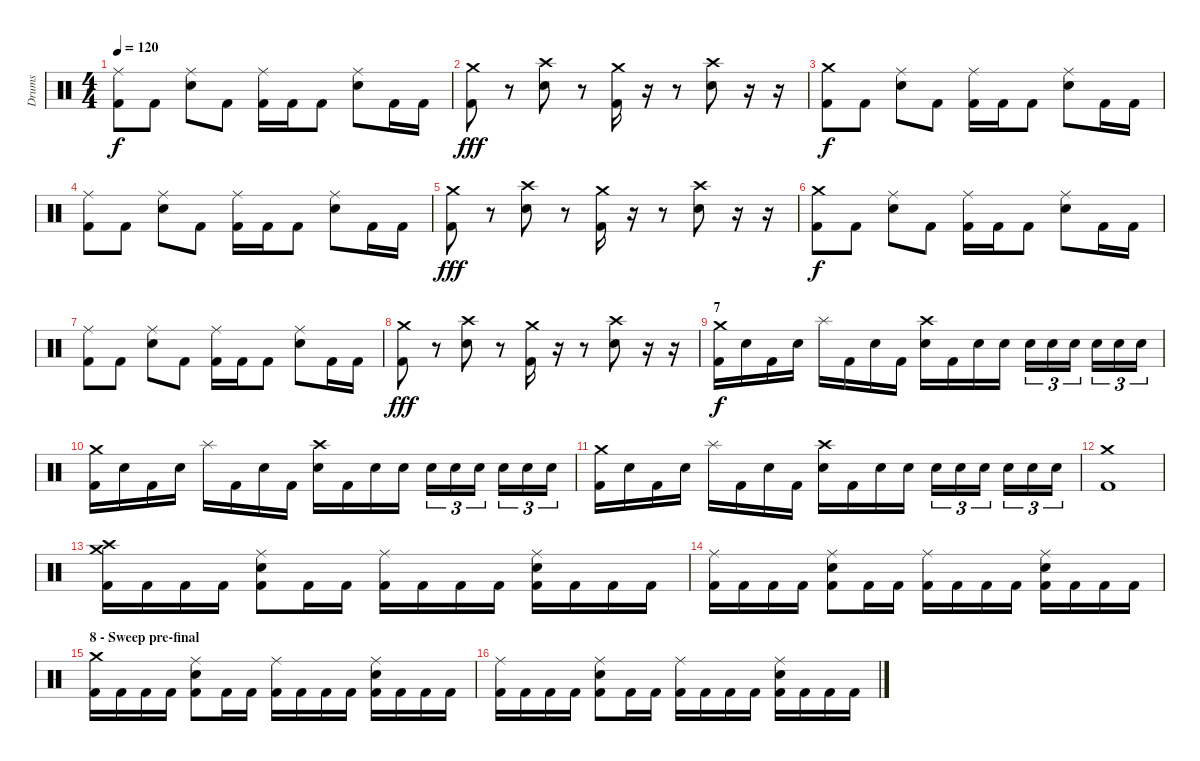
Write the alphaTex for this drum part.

\track ("Drums" "Drums") {instrument percussion}
\staff {score}
\articulation defaults
\ts (4 4)
\tempo 120
\clef neutral
\ks c
("Ride (middle)" "Kick (hit) 2").8{dy f} "Kick (hit) 2".8 ("Ride (middle)" "Electric Snare (hit)").8 "Kick (hit) 2".8 ("Ride (middle)" "Kick (hit) 2").16 "Kick (hit) 2".16 "Kick (hit) 2".8 ("Ride (middle)" "Electric Snare (hit)").8 "Kick (hit) 2".16 "Kick (hit) 2".16 |
("Crash medium (hit)" "Kick (hit) 2").8{dy fff} r.8 ("Crash high (hit)" "Electric Snare (hit)").8 r.8 ("Crash medium (hit)" "Kick (hit) 2").16 r.16 r.8 ("Crash high (hit)" "Electric Snare (hit)").8 r.16 r.16 |
("Crash medium (hit)" "Kick (hit) 2").8{dy f} "Kick (hit) 2".8 ("Ride (middle)" "Electric Snare (hit)").8 "Kick (hit) 2".8 ("Ride (middle)" "Kick (hit) 2").16 "Kick (hit) 2".16 "Kick (hit) 2".8 ("Ride (middle)" "Electric Snare (hit)").8 "Kick (hit) 2".16 "Kick (hit) 2".16 |
("Ride (middle)" "Kick (hit) 2").8 "Kick (hit) 2".8 ("Ride (middle)" "Electric Snare (hit)").8 "Kick (hit) 2".8 ("Ride (middle)" "Kick (hit) 2").16 "Kick (hit) 2".16 "Kick (hit) 2".8 ("Ride (middle)" "Electric Snare (hit)").8 "Kick (hit) 2".16 "Kick (hit) 2".16 |
("Crash medium (hit)" "Kick (hit) 2").8{dy fff} r.8 ("Crash high (hit)" "Electric Snare (hit)").8 r.8 ("Crash medium (hit)" "Kick (hit) 2").16 r.16 r.8 ("Crash high (hit)" "Electric Snare (hit)").8 r.16 r.16 |
("Crash medium (hit)" "Kick (hit) 2").8{dy f} "Kick (hit) 2".8 ("Ride (middle)" "Electric Snare (hit)").8 "Kick (hit) 2".8 ("Ride (middle)" "Kick (hit) 2").16 "Kick (hit) 2".16 "Kick (hit) 2".8 ("Ride (middle)" "Electric Snare (hit)").8 "Kick (hit) 2".16 "Kick (hit) 2".16 |
("Ride (middle)" "Kick (hit) 2").8 "Kick (hit) 2".8 ("Ride (middle)" "Electric Snare (hit)").8 "Kick (hit) 2".8 ("Ride (middle)" "Kick (hit) 2").16 "Kick (hit) 2".16 "Kick (hit) 2".8 ("Ride (middle)" "Electric Snare (hit)").8 "Kick (hit) 2".16 "Kick (hit) 2".16 |
("Crash medium (hit)" "Kick (hit) 2").8{dy fff} r.8 ("Crash high (hit)" "Electric Snare (hit)").8 r.8 ("Crash medium (hit)" "Kick (hit) 2").16 r.16 r.8 ("Crash high (hit)" "Electric Snare (hit)").8 r.16 r.16 |
\section ("" "7")
("Crash medium (hit)" "Kick (hit) 2").16{dy f} "Electric Snare (hit)".16 "Kick (hit) 2".16 "Electric Snare (hit)".16 "Splash (hit)".16 "Kick (hit) 2".16 "Electric Snare (hit)".16 "Kick (hit) 2".16 ("Crash high (hit)" "Electric Snare (hit)").16 "Kick (hit) 2".16 "Electric Snare (hit)".16 "Electric Snare (hit)".16 "Electric Snare (hit)".16{tu (3 2)} "Electric Snare (hit)".16{tu (3 2)} "Electric Snare (hit)".16{tu (3 2)} "Electric Snare (hit)".16{tu (3 2)} "Electric Snare (hit)".16{tu (3 2)} "Electric Snare (hit)".16{tu (3 2)} |
("Crash medium (hit)" "Kick (hit) 2").16 "Electric Snare (hit)".16 "Kick (hit) 2".16 "Electric Snare (hit)".16 "Splash (hit)".16 "Kick (hit) 2".16 "Electric Snare (hit)".16 "Kick (hit) 2".16 ("Crash high (hit)" "Electric Snare (hit)").16 "Kick (hit) 2".16 "Electric Snare (hit)".16 "Electric Snare (hit)".16 "Electric Snare (hit)".16{tu (3 2)} "Electric Snare (hit)".16{tu (3 2)} "Electric Snare (hit)".16{tu (3 2)} "Electric Snare (hit)".16{tu (3 2)} "Electric Snare (hit)".16{tu (3 2)} "Electric Snare (hit)".16{tu (3 2)} |
("Crash medium (hit)" "Kick (hit) 2").16 "Electric Snare (hit)".16 "Kick (hit) 2".16 "Electric Snare (hit)".16 "Splash (hit)".16 "Kick (hit) 2".16 "Electric Snare (hit)".16 "Kick (hit) 2".16 ("Crash high (hit)" "Electric Snare (hit)").16 "Kick (hit) 2".16 "Electric Snare (hit)".16 "Electric Snare (hit)".16 "Electric Snare (hit)".16{tu (3 2)} "Electric Snare (hit)".16{tu (3 2)} "Electric Snare (hit)".16{tu (3 2)} "Electric Snare (hit)".16{tu (3 2)} "Electric Snare (hit)".16{tu (3 2)} "Electric Snare (hit)".16{tu (3 2)} |
("Crash medium (hit)" "Kick (hit) 2").1 |
("Crash medium (hit)" "Crash high (hit)" "Kick (hit) 2").16{volume 12} "Kick (hit) 2".16 "Kick (hit) 2".16 "Kick (hit) 2".16 ("Ride (middle)" "Electric Snare (hit)" "Kick (hit) 2").8 "Kick (hit) 2".16 "Kick (hit) 2".16 ("Ride (middle)" "Kick (hit) 2").16 "Kick (hit) 2".16 "Kick (hit) 2".16 "Kick (hit) 2".16 ("Ride (middle)" "Electric Snare (hit)" "Kick (hit) 2").16 "Kick (hit) 2".16 "Kick (hit) 2".16 "Kick (hit) 2".16 |
("Ride (middle)" "Kick (hit) 2").16 "Kick (hit) 2".16 "Kick (hit) 2".16 "Kick (hit) 2".16 ("Ride (middle)" "Electric Snare (hit)" "Kick (hit) 2").8 "Kick (hit) 2".16 "Kick (hit) 2".16 ("Ride (middle)" "Kick (hit) 2").16 "Kick (hit) 2".16 "Kick (hit) 2".16 "Kick (hit) 2".16 ("Ride (middle)" "Electric Snare (hit)" "Kick (hit) 2").16 "Kick (hit) 2".16 "Kick (hit) 2".16 "Kick (hit) 2".16 |
\section ("" "8 - Sweep pre-final")
("Crash medium (hit)" "Kick (hit) 2").16 "Kick (hit) 2".16 "Kick (hit) 2".16 "Kick (hit) 2".16 ("Ride (middle)" "Electric Snare (hit)" "Kick (hit) 2").8 "Kick (hit) 2".16 "Kick (hit) 2".16 ("Ride (middle)" "Kick (hit) 2").16 "Kick (hit) 2".16 "Kick (hit) 2".16 "Kick (hit) 2".16 ("Ride (middle)" "Electric Snare (hit)" "Kick (hit) 2").16 "Kick (hit) 2".16 "Kick (hit) 2".16 "Kick (hit) 2".16 |
("Ride (middle)" "Kick (hit) 2").16 "Kick (hit) 2".16 "Kick (hit) 2".16 "Kick (hit) 2".16 ("Ride (middle)" "Electric Snare (hit)" "Kick (hit) 2").8 "Kick (hit) 2".16 "Kick (hit) 2".16 ("Ride (middle)" "Kick (hit) 2").16 "Kick (hit) 2".16 "Kick (hit) 2".16 "Kick (hit) 2".16 ("Ride (middle)" "Electric Snare (hit)" "Kick (hit) 2").16 "Kick (hit) 2".16 "Kick (hit) 2".16 "Kick (hit) 2".16
